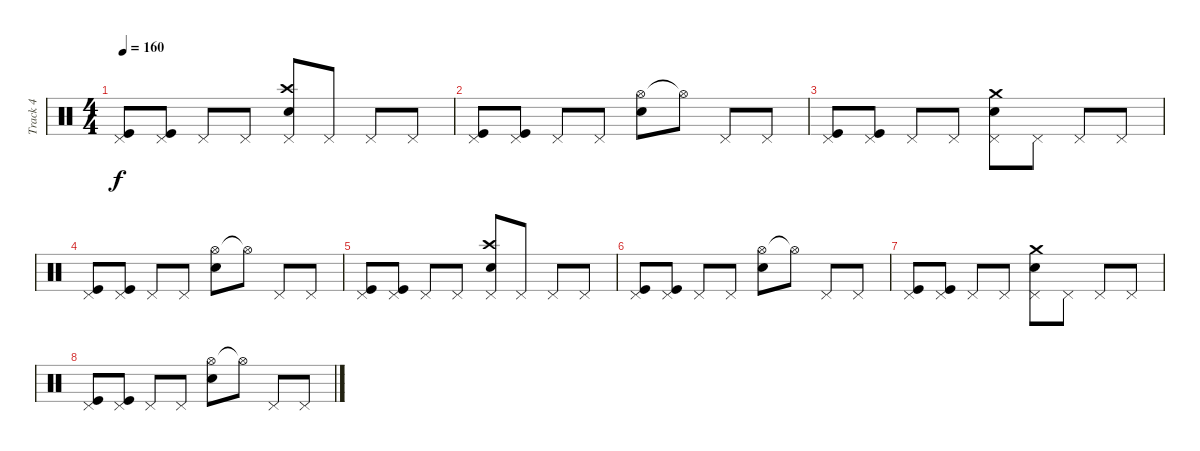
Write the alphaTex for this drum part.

\track ("Track 4" "Track 4") {instrument percussion}
\staff {score}
\articulation defaults
\ts (4 4)
\tempo 160
\clef neutral
\ks c
("Pedal Hi-Hat (hit)" "Kick (hit)").8{dy f} ("Pedal Hi-Hat (hit)" "Kick (hit)").8 "Pedal Hi-Hat (hit)".8 "Pedal Hi-Hat (hit)".8 ("Crash high (hit)" "Pedal Hi-Hat (hit)" "Electric Snare (hit)").8 "Pedal Hi-Hat (hit)".8 "Pedal Hi-Hat (hit)".8 "Pedal Hi-Hat (hit)".8 |
("Pedal Hi-Hat (hit)" "Kick (hit)").8 ("Pedal Hi-Hat (hit)" "Kick (hit)").8 "Pedal Hi-Hat (hit)".8 "Pedal Hi-Hat (hit)".8 ("Hi-Hat (open)" "Electric Snare (hit)").8 "Hi-Hat (open)"{t}.8 "Pedal Hi-Hat (hit)".8 "Pedal Hi-Hat (hit)".8 |
("Pedal Hi-Hat (hit)" "Kick (hit)").8 ("Pedal Hi-Hat (hit)" "Kick (hit)").8 "Pedal Hi-Hat (hit)".8 "Pedal Hi-Hat (hit)".8 ("Crash medium (hit)" "Pedal Hi-Hat (hit)" "Electric Snare (hit)").8 "Pedal Hi-Hat (hit)".8 "Pedal Hi-Hat (hit)".8 "Pedal Hi-Hat (hit)".8 |
("Pedal Hi-Hat (hit)" "Kick (hit)").8 ("Pedal Hi-Hat (hit)" "Kick (hit)").8 "Pedal Hi-Hat (hit)".8 "Pedal Hi-Hat (hit)".8 ("Hi-Hat (open)" "Electric Snare (hit)").8 "Hi-Hat (open)"{t}.8 "Pedal Hi-Hat (hit)".8 "Pedal Hi-Hat (hit)".8 |
("Pedal Hi-Hat (hit)" "Kick (hit)").8 ("Pedal Hi-Hat (hit)" "Kick (hit)").8 "Pedal Hi-Hat (hit)".8 "Pedal Hi-Hat (hit)".8 ("Crash high (hit)" "Pedal Hi-Hat (hit)" "Electric Snare (hit)").8 "Pedal Hi-Hat (hit)".8 "Pedal Hi-Hat (hit)".8 "Pedal Hi-Hat (hit)".8 |
("Pedal Hi-Hat (hit)" "Kick (hit)").8 ("Pedal Hi-Hat (hit)" "Kick (hit)").8 "Pedal Hi-Hat (hit)".8 "Pedal Hi-Hat (hit)".8 ("Hi-Hat (open)" "Electric Snare (hit)").8 "Hi-Hat (open)"{t}.8 "Pedal Hi-Hat (hit)".8 "Pedal Hi-Hat (hit)".8 |
("Pedal Hi-Hat (hit)" "Kick (hit)").8 ("Pedal Hi-Hat (hit)" "Kick (hit)").8 "Pedal Hi-Hat (hit)".8 "Pedal Hi-Hat (hit)".8 ("Crash medium (hit)" "Pedal Hi-Hat (hit)" "Electric Snare (hit)").8 "Pedal Hi-Hat (hit)".8 "Pedal Hi-Hat (hit)".8 "Pedal Hi-Hat (hit)".8 |
("Pedal Hi-Hat (hit)" "Kick (hit)").8 ("Pedal Hi-Hat (hit)" "Kick (hit)").8 "Pedal Hi-Hat (hit)".8 "Pedal Hi-Hat (hit)".8 ("Hi-Hat (open)" "Electric Snare (hit)").8 "Hi-Hat (open)"{t}.8 "Pedal Hi-Hat (hit)".8 "Pedal Hi-Hat (hit)".8
